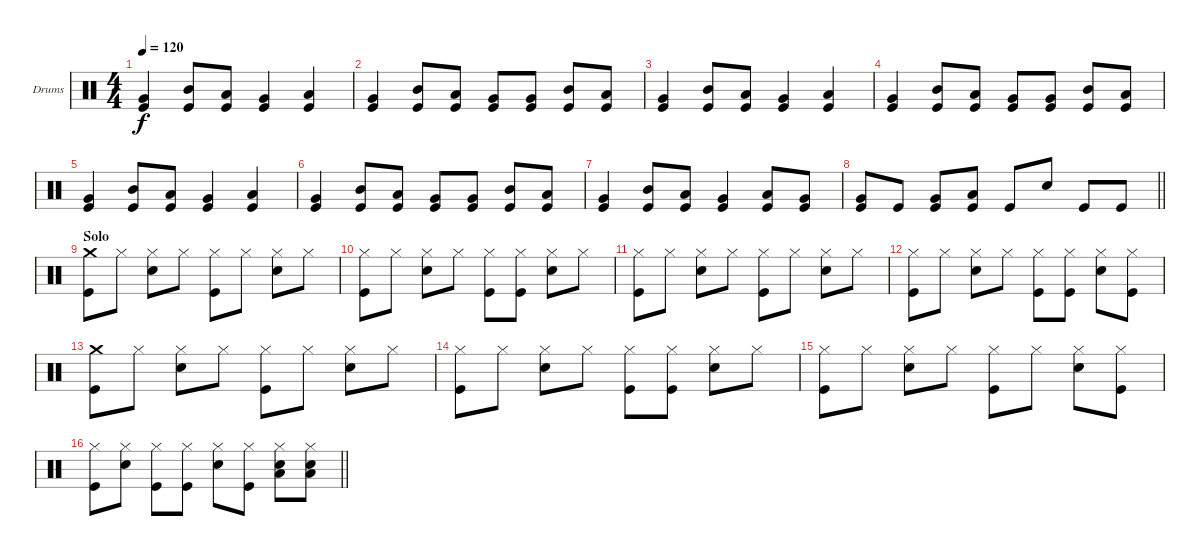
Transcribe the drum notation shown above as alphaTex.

\bracketExtendMode groupsimilarinstruments
\firstSystemTrackNameOrientation horizontal
\otherSystemsTrackNameOrientation horizontal
\track ("Drumkit" "Drums") {instrument percussion}
\staff {score}
\articulation defaults
\ts (4 4)
\section ("" "")
\tempo 120
\clef neutral
\ks c
("Kick (hit)" "Very Low Tom (hit)").4{dy f} ("Kick (hit)" "Mid Tom (hit)").8 ("Kick (hit)" "Low Tom (hit)").8 ("Kick (hit)" "Very Low Tom (hit)").4 ("Kick (hit)" "Low Tom (hit)").4 |
("Kick (hit)" "Very Low Tom (hit)").4 ("Kick (hit)" "Mid Tom (hit)").8 ("Kick (hit)" "Low Tom (hit)").8 ("Kick (hit)" "Very Low Tom (hit)").8 ("Kick (hit)" "Very Low Tom (hit)").8 ("Kick (hit)" "Mid Tom (hit)").8 ("Kick (hit)" "Low Tom (hit)").8 |
("Kick (hit)" "Very Low Tom (hit)").4 ("Kick (hit)" "Mid Tom (hit)").8 ("Kick (hit)" "Low Tom (hit)").8 ("Kick (hit)" "Very Low Tom (hit)").4 ("Kick (hit)" "Low Tom (hit)").4 |
("Kick (hit)" "Very Low Tom (hit)").4 ("Kick (hit)" "Mid Tom (hit)").8 ("Kick (hit)" "Low Tom (hit)").8 ("Kick (hit)" "Very Low Tom (hit)").8 ("Kick (hit)" "Very Low Tom (hit)").8 ("Kick (hit)" "Mid Tom (hit)").8 ("Kick (hit)" "Low Tom (hit)").8 |
("Kick (hit)" "Very Low Tom (hit)").4 ("Kick (hit)" "Mid Tom (hit)").8 ("Kick (hit)" "Low Tom (hit)").8 ("Kick (hit)" "Very Low Tom (hit)").4 ("Kick (hit)" "Low Tom (hit)").4 |
("Kick (hit)" "Very Low Tom (hit)").4 ("Kick (hit)" "Mid Tom (hit)").8 ("Kick (hit)" "Low Tom (hit)").8 ("Kick (hit)" "Very Low Tom (hit)").8 ("Kick (hit)" "Very Low Tom (hit)").8 ("Kick (hit)" "Mid Tom (hit)").8 ("Kick (hit)" "Low Tom (hit)").8 |
("Kick (hit)" "Very Low Tom (hit)").4 ("Kick (hit)" "Mid Tom (hit)").8 ("Kick (hit)" "Low Tom (hit)").8 ("Kick (hit)" "Very Low Tom (hit)").4 ("Kick (hit)" "Low Tom (hit)").8 ("Kick (hit)" "Very Low Tom (hit)").8 |
\barLineRight lightlight
("Kick (hit)" "Very Low Tom (hit)").8 "Kick (hit)".8 ("Kick (hit)" "Very Low Tom (hit)").8 ("Kick (hit)" "Low Tom (hit)").8 "Kick (hit)".8 "Snare (hit) 2".8 "Kick (hit)".8 "Kick (hit)".8 |
\section ("" "Solo")
("Crash medium (hit)" "Kick (hit)").8 "Hi-Hat (closed)".8 ("Hi-Hat (closed)" "Snare (hit) 2").8 "Hi-Hat (closed)".8 ("Hi-Hat (closed)" "Kick (hit)").8 "Hi-Hat (closed)".8 ("Hi-Hat (closed)" "Snare (hit) 2").8 "Hi-Hat (closed)".8 |
("Hi-Hat (closed)" "Kick (hit)").8 "Hi-Hat (closed)".8 ("Hi-Hat (closed)" "Snare (hit) 2").8 "Hi-Hat (closed)".8 ("Hi-Hat (closed)" "Kick (hit)").8 ("Hi-Hat (closed)" "Kick (hit)").8 ("Hi-Hat (closed)" "Snare (hit) 2").8 "Hi-Hat (closed)".8 |
("Hi-Hat (closed)" "Kick (hit)").8 "Hi-Hat (closed)".8 ("Hi-Hat (closed)" "Snare (hit) 2").8 "Hi-Hat (closed)".8 ("Hi-Hat (closed)" "Kick (hit)").8 "Hi-Hat (closed)".8 ("Hi-Hat (closed)" "Snare (hit) 2").8 "Hi-Hat (closed)".8 |
("Hi-Hat (closed)" "Kick (hit)").8 "Hi-Hat (closed)".8 ("Hi-Hat (closed)" "Snare (hit) 2").8 "Hi-Hat (closed)".8 ("Hi-Hat (closed)" "Kick (hit)").8 ("Hi-Hat (closed)" "Kick (hit)").8 ("Hi-Hat (closed)" "Snare (hit) 2").8 ("Hi-Hat (closed)" "Kick (hit)").8 |
("Crash medium (hit)" "Kick (hit)").8 "Hi-Hat (closed)".8 ("Hi-Hat (closed)" "Snare (hit) 2").8 "Hi-Hat (closed)".8 ("Hi-Hat (closed)" "Kick (hit)").8 "Hi-Hat (closed)".8 ("Hi-Hat (closed)" "Snare (hit) 2").8 "Hi-Hat (closed)".8 |
("Hi-Hat (closed)" "Kick (hit)").8 "Hi-Hat (closed)".8 ("Hi-Hat (closed)" "Snare (hit) 2").8 "Hi-Hat (closed)".8 ("Hi-Hat (closed)" "Kick (hit)").8 ("Hi-Hat (closed)" "Kick (hit)").8 ("Hi-Hat (closed)" "Snare (hit) 2").8 "Hi-Hat (closed)".8 |
("Hi-Hat (closed)" "Kick (hit)").8 "Hi-Hat (closed)".8 ("Hi-Hat (closed)" "Snare (hit) 2").8 "Hi-Hat (closed)".8 ("Hi-Hat (closed)" "Kick (hit)").8 "Hi-Hat (closed)".8 ("Hi-Hat (closed)" "Snare (hit) 2").8 ("Hi-Hat (closed)" "Kick (hit)").8 |
\barLineRight lightlight
("Hi-Hat (closed)" "Kick (hit)").8 ("Hi-Hat (closed)" "Snare (hit) 2").8 ("Hi-Hat (closed)" "Kick (hit)").8 ("Hi-Hat (closed)" "Kick (hit)").8 ("Hi-Hat (closed)" "Snare (hit) 2").8 ("Hi-Hat (closed)" "Kick (hit)").8 ("Hi-Hat (closed)" "Snare (hit) 2" "Low Tom (hit)").8 ("Hi-Hat (closed)" "Snare (hit) 2" "Low Tom (hit)").8
